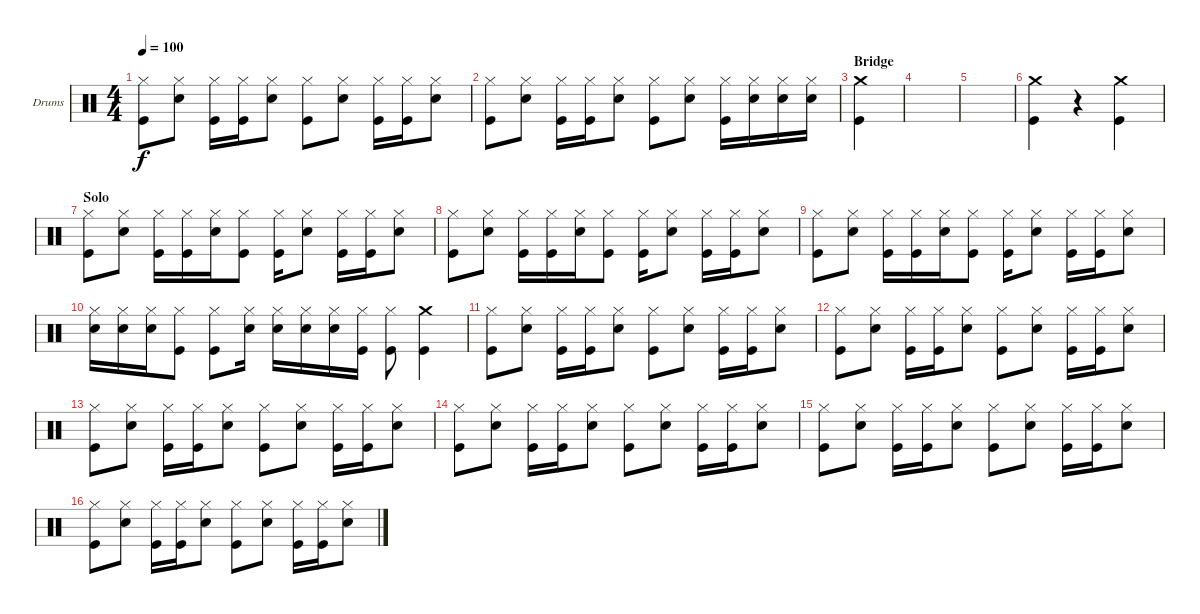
\defaultSystemsLayout 4
\bracketExtendMode groupsimilarinstruments
\firstSystemTrackNameOrientation horizontal
\otherSystemsTrackNameOrientation horizontal
\track ("Drumkit" "Drums") {instrument percussion}
\staff {score}
\articulation defaults
\ts (4 4)
\tempo 100
\clef neutral
\scale
0.333333
\ks c
("Hi-Hat (closed)" "Kick (hit)").8{dy f} ("Hi-Hat (closed)" "Snare (hit) 2").8 ("Hi-Hat (closed)" "Kick (hit)").16 ("Hi-Hat (closed)" "Kick (hit)").16 ("Hi-Hat (closed)" "Snare (hit) 2").8 ("Hi-Hat (closed)" "Kick (hit)").8 ("Hi-Hat (closed)" "Snare (hit) 2").8 ("Hi-Hat (closed)" "Kick (hit)").16 ("Hi-Hat (closed)" "Kick (hit)").16 ("Hi-Hat (closed)" "Snare (hit) 2").8 |
\scale
0.333333 ("Hi-Hat (closed)" "Kick (hit)").8 ("Hi-Hat (closed)" "Snare (hit) 2").8 ("Hi-Hat (closed)" "Kick (hit)").16 ("Hi-Hat (closed)" "Kick (hit)").16 ("Hi-Hat (closed)" "Snare (hit) 2").8 ("Hi-Hat (closed)" "Kick (hit)").8 ("Hi-Hat (closed)" "Snare (hit) 2").8 ("Hi-Hat (closed)" "Kick (hit)").16 ("Hi-Hat (closed)" "Snare (hit) 2").16 ("Hi-Hat (closed)" "Snare (hit) 2").16 ("Hi-Hat (closed)" "Snare (hit) 2").16 |
\section ("" "Bridge")
\scale
0.333333 ("Crash medium (hit)" "Kick (hit)").4 |
\scale
0.333333 |
\scale
0.333333 |
\scale
0.333333 ("Crash medium (hit)" "Kick (hit)").4 r.4 ("Crash medium (hit)" "Kick (hit)").4 |
\section ("" "Solo")
\scale
0.333333 ("Hi-Hat (closed)" "Kick (hit)").8 ("Hi-Hat (closed)" "Snare (hit) 2").8 ("Hi-Hat (closed)" "Kick (hit)").16 ("Hi-Hat (closed)" "Kick (hit)").16 ("Hi-Hat (closed)" "Snare (hit) 2").16 ("Hi-Hat (closed)" "Kick (hit)").8 ("Hi-Hat (closed)" "Kick (hit)").16 ("Hi-Hat (closed)" "Snare (hit) 2").8 ("Hi-Hat (closed)" "Kick (hit)").16 ("Hi-Hat (closed)" "Kick (hit)").16 ("Hi-Hat (closed)" "Snare (hit) 2").8 |
\scale
0.333333 ("Hi-Hat (closed)" "Kick (hit)").8 ("Hi-Hat (closed)" "Snare (hit) 2").8 ("Hi-Hat (closed)" "Kick (hit)").16 ("Hi-Hat (closed)" "Kick (hit)").16 ("Hi-Hat (closed)" "Snare (hit) 2").16 ("Hi-Hat (closed)" "Kick (hit)").8 ("Hi-Hat (closed)" "Kick (hit)").16 ("Hi-Hat (closed)" "Snare (hit) 2").8 ("Hi-Hat (closed)" "Kick (hit)").16 ("Hi-Hat (closed)" "Kick (hit)").16 ("Hi-Hat (closed)" "Snare (hit) 2").8 |
\scale
0.333333 ("Hi-Hat (closed)" "Kick (hit)").8 ("Hi-Hat (closed)" "Snare (hit) 2").8 ("Hi-Hat (closed)" "Kick (hit)").16 ("Hi-Hat (closed)" "Kick (hit)").16 ("Hi-Hat (closed)" "Snare (hit) 2").16 ("Hi-Hat (closed)" "Kick (hit)").8 ("Hi-Hat (closed)" "Kick (hit)").16 ("Hi-Hat (closed)" "Snare (hit) 2").8 ("Hi-Hat (closed)" "Kick (hit)").16 ("Hi-Hat (closed)" "Kick (hit)").16 ("Hi-Hat (closed)" "Snare (hit) 2").8 |
\scale
0.333333 ("Hi-Hat (closed)" "Snare (hit) 2").16 ("Hi-Hat (closed)" "Snare (hit) 2").16 ("Hi-Hat (closed)" "Snare (hit) 2").16 ("Hi-Hat (closed)" "Kick (hit)").8 ("Hi-Hat (closed)" "Kick (hit)").8 ("Hi-Hat (closed)" "Snare (hit) 2").16 ("Hi-Hat (closed)" "Snare (hit) 2").16 ("Hi-Hat (closed)" "Snare (hit) 2").16 ("Hi-Hat (closed)" "Snare (hit) 2").16 ("Hi-Hat (closed)" "Kick (hit)").16 ("Hi-Hat (closed)" "Kick (hit)").8 ("Crash medium (hit)" "Kick (hit)").4 |
\scale
0.333333 ("Hi-Hat (closed)" "Kick (hit)").8 ("Hi-Hat (closed)" "Snare (hit) 2").8 ("Hi-Hat (closed)" "Kick (hit)").16 ("Hi-Hat (closed)" "Kick (hit)").16 ("Hi-Hat (closed)" "Snare (hit) 2").8 ("Hi-Hat (closed)" "Kick (hit)").8 ("Hi-Hat (closed)" "Snare (hit) 2").8 ("Hi-Hat (closed)" "Kick (hit)").16 ("Hi-Hat (closed)" "Kick (hit)").16 ("Hi-Hat (closed)" "Snare (hit) 2").8 |
\scale
0.333333 ("Hi-Hat (closed)" "Kick (hit)").8 ("Hi-Hat (closed)" "Snare (hit) 2").8 ("Hi-Hat (closed)" "Kick (hit)").16 ("Hi-Hat (closed)" "Kick (hit)").16 ("Hi-Hat (closed)" "Snare (hit) 2").8 ("Hi-Hat (closed)" "Kick (hit)").8 ("Hi-Hat (closed)" "Snare (hit) 2").8 ("Hi-Hat (closed)" "Kick (hit)").16 ("Hi-Hat (closed)" "Kick (hit)").16 ("Hi-Hat (closed)" "Snare (hit) 2").8 |
\scale
0.333333 ("Hi-Hat (closed)" "Kick (hit)").8 ("Hi-Hat (closed)" "Snare (hit) 2").8 ("Hi-Hat (closed)" "Kick (hit)").16 ("Hi-Hat (closed)" "Kick (hit)").16 ("Hi-Hat (closed)" "Snare (hit) 2").8 ("Hi-Hat (closed)" "Kick (hit)").8 ("Hi-Hat (closed)" "Snare (hit) 2").8 ("Hi-Hat (closed)" "Kick (hit)").16 ("Hi-Hat (closed)" "Kick (hit)").16 ("Hi-Hat (closed)" "Snare (hit) 2").8 |
\scale
0.333333 ("Hi-Hat (closed)" "Kick (hit)").8 ("Hi-Hat (closed)" "Snare (hit) 2").8 ("Hi-Hat (closed)" "Kick (hit)").16 ("Hi-Hat (closed)" "Kick (hit)").16 ("Hi-Hat (closed)" "Snare (hit) 2").8 ("Hi-Hat (closed)" "Kick (hit)").8 ("Hi-Hat (closed)" "Snare (hit) 2").8 ("Hi-Hat (closed)" "Kick (hit)").16 ("Hi-Hat (closed)" "Kick (hit)").16 ("Hi-Hat (closed)" "Snare (hit) 2").8 |
\scale
0.333333 ("Hi-Hat (closed)" "Kick (hit)").8 ("Hi-Hat (closed)" "Snare (hit) 2").8 ("Hi-Hat (closed)" "Kick (hit)").16 ("Hi-Hat (closed)" "Kick (hit)").16 ("Hi-Hat (closed)" "Snare (hit) 2").8 ("Hi-Hat (closed)" "Kick (hit)").8 ("Hi-Hat (closed)" "Snare (hit) 2").8 ("Hi-Hat (closed)" "Kick (hit)").16 ("Hi-Hat (closed)" "Kick (hit)").16 ("Hi-Hat (closed)" "Snare (hit) 2").8 |
\scale
0.333333 ("Hi-Hat (closed)" "Kick (hit)").8 ("Hi-Hat (closed)" "Snare (hit) 2").8 ("Hi-Hat (closed)" "Kick (hit)").16 ("Hi-Hat (closed)" "Kick (hit)").16 ("Hi-Hat (closed)" "Snare (hit) 2").8 ("Hi-Hat (closed)" "Kick (hit)").8 ("Hi-Hat (closed)" "Snare (hit) 2").8 ("Hi-Hat (closed)" "Kick (hit)").16 ("Hi-Hat (closed)" "Kick (hit)").16 ("Hi-Hat (closed)" "Snare (hit) 2").8
